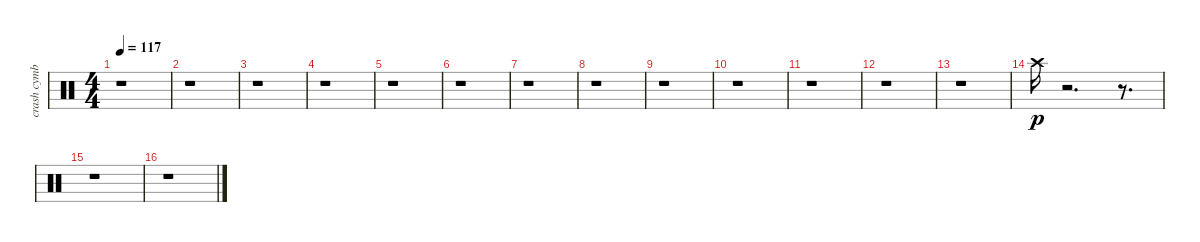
\track ("crash cymbal" "crash cymb") {instrument percussion}
\staff {score}
\articulation defaults
\ts (4 4)
\tempo 117
\clef neutral
\ks c
r.1{dy fff} |
r.1 |
r.1 |
r.1 |
r.1 |
r.1 |
r.1 |
r.1 |
r.1 |
r.1 |
r.1 |
r.1 |
r.1 |
"Crash high (hit)".16{dy p} r.2{d} r.8{d} |
r.1 |
r.1
